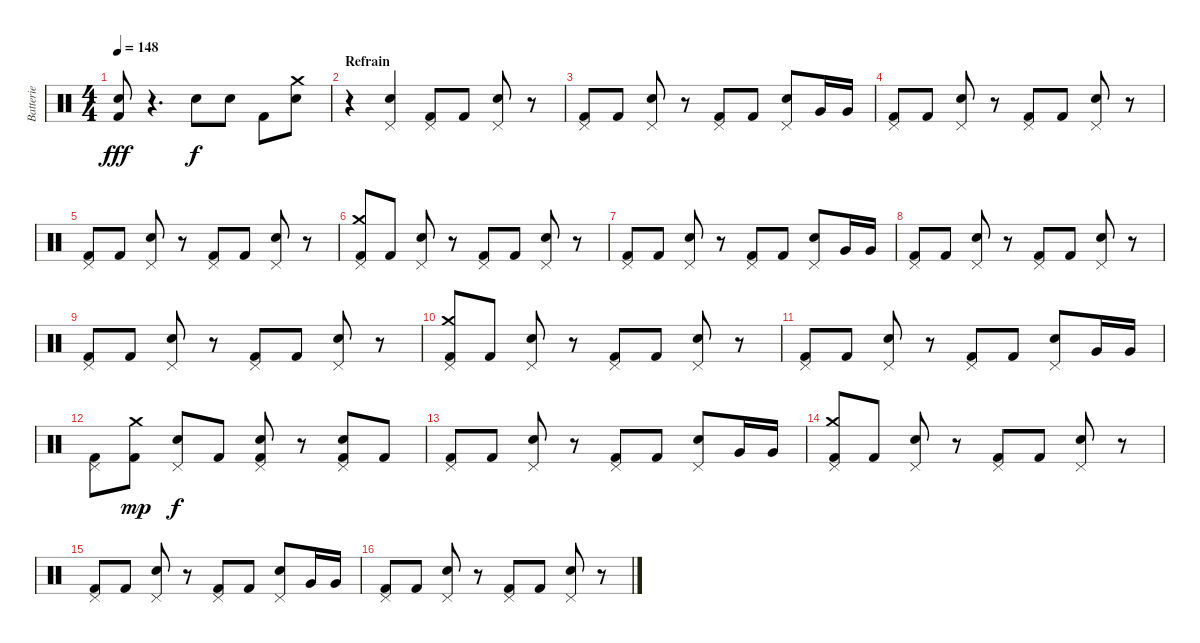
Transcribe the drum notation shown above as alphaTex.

\track ("Batterie" "Batterie") {instrument percussion}
\staff {score}
\articulation defaults
\ts (4 4)
\tempo 148
\clef neutral
\ks c
("Electric Snare (hit)" "Kick (hit) 2").8{dy fff} r.4{d} "Electric Snare (hit)".8{dy f} "Electric Snare (hit)".8 "Kick (hit) 2".8 ("Crash medium (hit)" "Electric Snare (hit)").8 |
\section ("" "Refrain")
r.4 ("Pedal Hi-Hat (hit)" "Electric Snare (hit)").4 ("Pedal Hi-Hat (hit)" "Kick (hit) 2").8 "Kick (hit) 2".8 ("Pedal Hi-Hat (hit)" "Electric Snare (hit)").8 r.8 |
("Pedal Hi-Hat (hit)" "Kick (hit) 2").8 "Kick (hit) 2".8 ("Pedal Hi-Hat (hit)" "Electric Snare (hit)").8 r.8 ("Pedal Hi-Hat (hit)" "Kick (hit) 2").8 "Kick (hit) 2".8 ("Pedal Hi-Hat (hit)" "Electric Snare (hit)").8 "Very Low Tom (hit)".16 "Very Low Tom (hit)".16 |
("Pedal Hi-Hat (hit)" "Kick (hit) 2").8 "Kick (hit) 2".8 ("Pedal Hi-Hat (hit)" "Electric Snare (hit)").8 r.8 ("Pedal Hi-Hat (hit)" "Kick (hit) 2").8 "Kick (hit) 2".8 ("Pedal Hi-Hat (hit)" "Electric Snare (hit)").8 r.8 |
("Pedal Hi-Hat (hit)" "Kick (hit) 2").8 "Kick (hit) 2".8 ("Pedal Hi-Hat (hit)" "Electric Snare (hit)").8 r.8 ("Pedal Hi-Hat (hit)" "Kick (hit) 2").8 "Kick (hit) 2".8 ("Pedal Hi-Hat (hit)" "Electric Snare (hit)").8 r.8 |
("Crash medium (hit)" "Pedal Hi-Hat (hit)" "Kick (hit) 2").8 "Kick (hit) 2".8 ("Pedal Hi-Hat (hit)" "Electric Snare (hit)").8 r.8 ("Pedal Hi-Hat (hit)" "Kick (hit) 2").8 "Kick (hit) 2".8 ("Pedal Hi-Hat (hit)" "Electric Snare (hit)").8 r.8 |
("Pedal Hi-Hat (hit)" "Kick (hit) 2").8 "Kick (hit) 2".8 ("Pedal Hi-Hat (hit)" "Electric Snare (hit)").8 r.8 ("Pedal Hi-Hat (hit)" "Kick (hit) 2").8 "Kick (hit) 2".8 ("Pedal Hi-Hat (hit)" "Electric Snare (hit)").8 "Very Low Tom (hit)".16 "Very Low Tom (hit)".16 |
("Pedal Hi-Hat (hit)" "Kick (hit) 2").8 "Kick (hit) 2".8 ("Pedal Hi-Hat (hit)" "Electric Snare (hit)").8 r.8 ("Pedal Hi-Hat (hit)" "Kick (hit) 2").8 "Kick (hit) 2".8 ("Pedal Hi-Hat (hit)" "Electric Snare (hit)").8 r.8 |
("Pedal Hi-Hat (hit)" "Kick (hit) 2").8 "Kick (hit) 2".8 ("Pedal Hi-Hat (hit)" "Electric Snare (hit)").8 r.8 ("Pedal Hi-Hat (hit)" "Kick (hit) 2").8 "Kick (hit) 2".8 ("Pedal Hi-Hat (hit)" "Electric Snare (hit)").8 r.8 |
("Crash medium (hit)" "Pedal Hi-Hat (hit)" "Kick (hit) 2").8 "Kick (hit) 2".8 ("Pedal Hi-Hat (hit)" "Electric Snare (hit)").8 r.8 ("Pedal Hi-Hat (hit)" "Kick (hit) 2").8 "Kick (hit) 2".8 ("Pedal Hi-Hat (hit)" "Electric Snare (hit)").8 r.8 |
("Pedal Hi-Hat (hit)" "Kick (hit) 2").8 "Kick (hit) 2".8 ("Pedal Hi-Hat (hit)" "Electric Snare (hit)").8 r.8 ("Pedal Hi-Hat (hit)" "Kick (hit) 2").8 "Kick (hit) 2".8 ("Pedal Hi-Hat (hit)" "Electric Snare (hit)").8 "Very Low Tom (hit)".16 "Very Low Tom (hit)".16 |
("Pedal Hi-Hat (hit)" "Kick (hit) 2").8 ("Crash medium (hit)" "Kick (hit) 2").8{dy mp} ("Pedal Hi-Hat (hit)" "Electric Snare (hit)").8{dy f} "Kick (hit) 2".8 ("Pedal Hi-Hat (hit)" "Electric Snare (hit)" "Kick (hit) 2").8 r.8 ("Pedal Hi-Hat (hit)" "Electric Snare (hit)" "Kick (hit) 2").8 "Kick (hit) 2".8 |
("Pedal Hi-Hat (hit)" "Kick (hit) 2").8 "Kick (hit) 2".8 ("Pedal Hi-Hat (hit)" "Electric Snare (hit)").8 r.8 ("Pedal Hi-Hat (hit)" "Kick (hit) 2").8 "Kick (hit) 2".8 ("Pedal Hi-Hat (hit)" "Electric Snare (hit)").8 "Very Low Tom (hit)".16 "Very Low Tom (hit)".16 |
("Crash medium (hit)" "Pedal Hi-Hat (hit)" "Kick (hit) 2").8 "Kick (hit) 2".8 ("Pedal Hi-Hat (hit)" "Electric Snare (hit)").8 r.8 ("Pedal Hi-Hat (hit)" "Kick (hit) 2").8 "Kick (hit) 2".8 ("Pedal Hi-Hat (hit)" "Electric Snare (hit)").8 r.8 |
("Pedal Hi-Hat (hit)" "Kick (hit) 2").8 "Kick (hit) 2".8 ("Pedal Hi-Hat (hit)" "Electric Snare (hit)").8 r.8 ("Pedal Hi-Hat (hit)" "Kick (hit) 2").8 "Kick (hit) 2".8 ("Pedal Hi-Hat (hit)" "Electric Snare (hit)").8 "Very Low Tom (hit)".16 "Very Low Tom (hit)".16 |
("Pedal Hi-Hat (hit)" "Kick (hit) 2").8 "Kick (hit) 2".8 ("Pedal Hi-Hat (hit)" "Electric Snare (hit)").8 r.8 ("Pedal Hi-Hat (hit)" "Kick (hit) 2").8 "Kick (hit) 2".8 ("Pedal Hi-Hat (hit)" "Electric Snare (hit)").8 r.8
